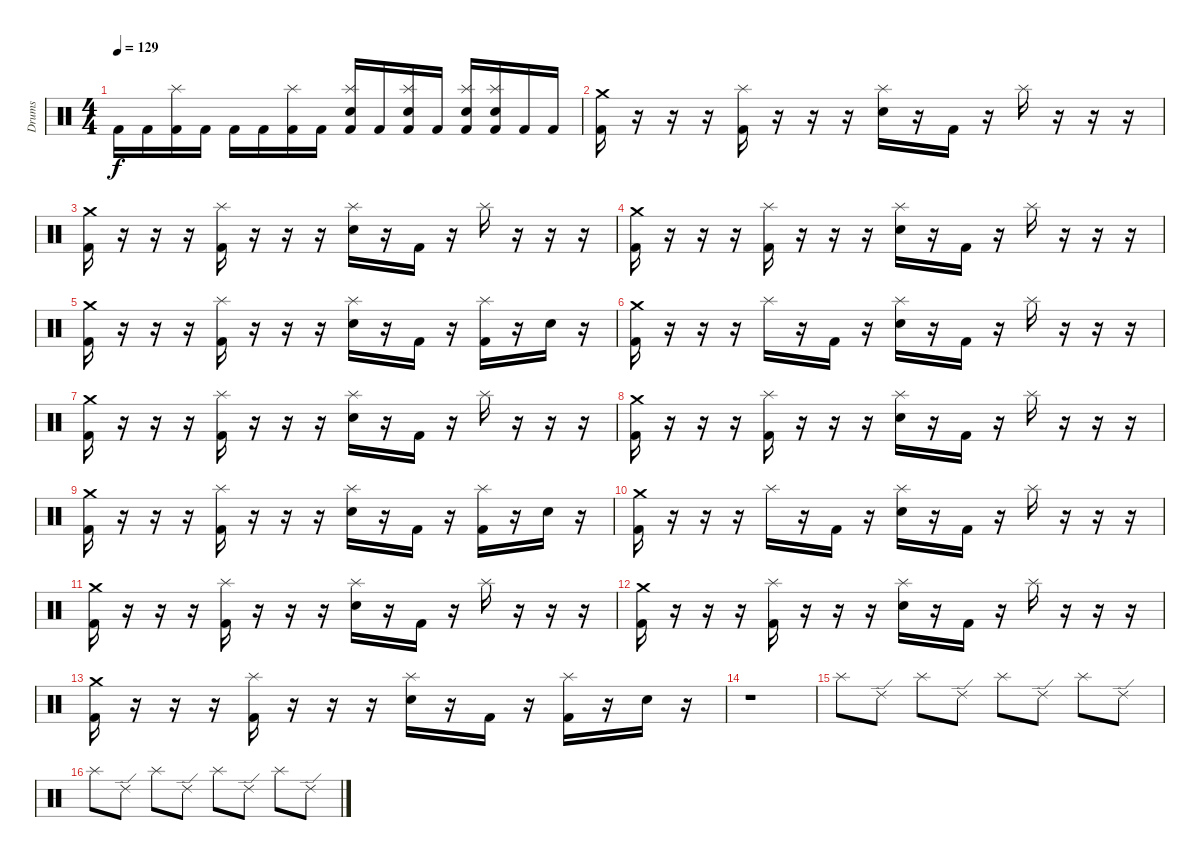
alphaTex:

\track ("Drums" "Drums") {instrument percussion}
\staff {score}
\articulation defaults
\ts (4 4)
\tempo 129
\clef neutral
\ks c "Kick (hit) 2".16{dy f} "Kick (hit) 2".16
("Splash (hit)" "Kick (hit) 2").16 "Kick (hit) 2".16 "Kick (hit) 2".16 "Kick (hit) 2".16 ("Splash (hit)" "Kick (hit) 2").16 "Kick (hit) 2".16 ("Snare (hit) 2" "Splash (hit)" "Kick (hit) 2").16 "Kick (hit) 2".16 ("Snare (hit) 2" "Splash (hit)" "Kick (hit) 2").16 "Kick (hit) 2".16 ("Snare (hit) 2" "Splash (hit)" "Kick (hit) 2").16 ("Snare (hit) 2" "Splash (hit)" "Kick (hit) 2").16 "Kick (hit) 2".16 "Kick (hit) 2".16 |
("Crash medium (hit)" "Kick (hit) 2").16 r.16 r.16 r.16 ("Splash (hit)" "Kick (hit) 2").16 r.16 r.16 r.16 ("Snare (hit) 2" "Splash (hit)").16 r.16 "Kick (hit) 2".16 r.16 "Splash (hit)".16 r.16 r.16 r.16 |
("Crash medium (hit)" "Kick (hit) 2").16 r.16 r.16 r.16 ("Splash (hit)" "Kick (hit) 2").16 r.16 r.16 r.16 ("Snare (hit) 2" "Splash (hit)").16 r.16 "Kick (hit) 2".16 r.16 "Splash (hit)".16 r.16 r.16 r.16 |
("Crash medium (hit)" "Kick (hit) 2").16 r.16 r.16 r.16 ("Splash (hit)" "Kick (hit) 2").16 r.16 r.16 r.16 ("Snare (hit) 2" "Splash (hit)").16 r.16 "Kick (hit) 2".16 r.16 "Splash (hit)".16 r.16 r.16 r.16 |
("Crash medium (hit)" "Kick (hit) 2").16 r.16 r.16 r.16 ("Splash (hit)" "Kick (hit) 2").16 r.16 r.16 r.16 ("Snare (hit) 2" "Splash (hit)").16 r.16 "Kick (hit) 2".16 r.16 ("Splash (hit)" "Kick (hit) 2").16 r.16 "Snare (hit) 2".16 r.16 |
("Crash medium (hit)" "Kick (hit) 2").16 r.16 r.16 r.16 "Splash (hit)".16 r.16 "Kick (hit) 2".16 r.16 ("Snare (hit) 2" "Splash (hit)").16 r.16 "Kick (hit) 2".16 r.16 "Splash (hit)".16 r.16 r.16 r.16 |
("Crash medium (hit)" "Kick (hit) 2").16 r.16 r.16 r.16 ("Splash (hit)" "Kick (hit) 2").16 r.16 r.16 r.16 ("Snare (hit) 2" "Splash (hit)").16 r.16 "Kick (hit) 2".16 r.16 "Splash (hit)".16 r.16 r.16 r.16 |
("Crash medium (hit)" "Kick (hit) 2").16 r.16 r.16 r.16 ("Splash (hit)" "Kick (hit) 2").16 r.16 r.16 r.16 ("Snare (hit) 2" "Splash (hit)").16 r.16 "Kick (hit) 2".16 r.16 "Splash (hit)".16 r.16 r.16 r.16 |
("Crash medium (hit)" "Kick (hit) 2").16 r.16 r.16 r.16 ("Splash (hit)" "Kick (hit) 2").16 r.16 r.16 r.16 ("Snare (hit) 2" "Splash (hit)").16 r.16 "Kick (hit) 2".16 r.16 ("Splash (hit)" "Kick (hit) 2").16 r.16 "Snare (hit) 2".16 r.16 |
("Crash medium (hit)" "Kick (hit) 2").16 r.16 r.16 r.16 "Splash (hit)".16 r.16 "Kick (hit) 2".16 r.16 ("Snare (hit) 2" "Splash (hit)").16 r.16 "Kick (hit) 2".16 r.16 "Splash (hit)".16 r.16 r.16 r.16 |
("Crash medium (hit)" "Kick (hit) 2").16 r.16 r.16 r.16 ("Splash (hit)" "Kick (hit) 2").16 r.16 r.16 r.16 ("Snare (hit) 2" "Splash (hit)").16 r.16 "Kick (hit) 2".16 r.16 "Splash (hit)".16 r.16 r.16 r.16 |
("Crash medium (hit)" "Kick (hit) 2").16 r.16 r.16 r.16 ("Splash (hit)" "Kick (hit) 2").16 r.16 r.16 r.16 ("Snare (hit) 2" "Splash (hit)").16 r.16 "Kick (hit) 2".16 r.16 "Splash (hit)".16 r.16 r.16 r.16 |
("Crash medium (hit)" "Kick (hit) 2").16 r.16 r.16 r.16 ("Splash (hit)" "Kick (hit) 2").16 r.16 r.16 r.16 ("Snare (hit) 2" "Splash (hit)").16 r.16 "Kick (hit) 2".16 r.16 ("Splash (hit)" "Kick (hit) 2").16 r.16 "Snare (hit) 2".16 r.16 |
r.1 |
"Splash (hit)".8 "Ride (edge) 2".8 "Splash (hit)".8 "Ride (edge) 2".8 "Splash (hit)".8 "Ride (edge) 2".8 "Splash (hit)".8 "Ride (edge) 2".8 |
"Splash (hit)".8 "Ride (edge) 2".8 "Splash (hit)".8 "Ride (edge) 2".8 "Splash (hit)".8 "Ride (edge) 2".8 "Splash (hit)".8 "Ride (edge) 2".8
